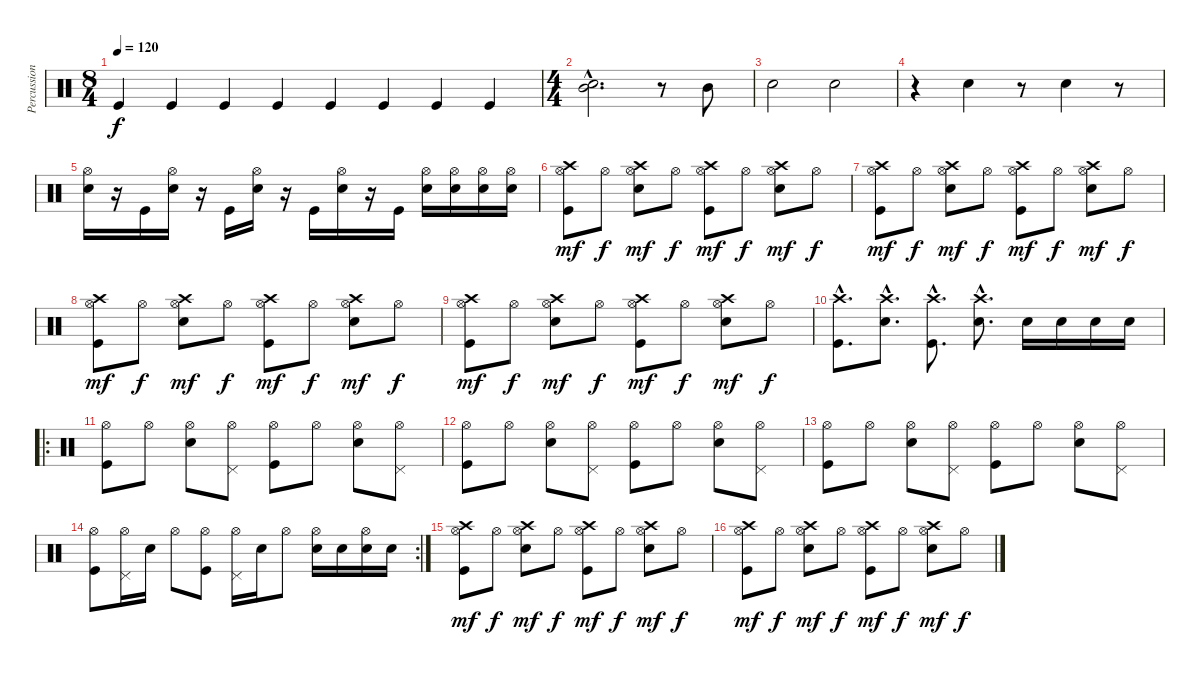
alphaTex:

\track ("Percussion" "Percussion") {instrument percussion}
\staff {score}
\articulation defaults
\ts (8 4)
\tempo 120
\clef neutral
\ks c "Kick (hit)".4{dy f} "Kick (hit)".4 "Kick (hit)".4 "Kick (hit)".4 "Kick (hit)".4 "Kick (hit)".4 "Kick (hit)".4 "Kick (hit)".4
|
\ts (4 4)
("Snare (hit) 2"{hac} "Mid Tom (hit)"{hac}).2{d} r.8 "Mid Tom (hit)".8 |
"Snare (hit) 2".2 "Snare (hit) 2".2 |
r.4 "Snare (hit) 2".4 r.8 "Snare (hit) 2".4 r.8 |
("Snare (hit) 2" "Hi-Hat (open)").16 r.16 "Kick (hit)".16 ("Snare (hit) 2" "Hi-Hat (open)").16 r.16 "Kick (hit)".16 ("Snare (hit) 2" "Hi-Hat (open)").16 r.16 "Kick (hit)".16 ("Snare (hit) 2" "Hi-Hat (open)").16 r.16 "Kick (hit)".16 ("Snare (hit) 2" "Hi-Hat (open)").16 ("Snare (hit) 2" "Hi-Hat (open)").16 ("Snare (hit) 2" "Hi-Hat (open)").16 ("Snare (hit) 2" "Hi-Hat (open)").16 |
("Hi-Hat (open)" "Kick (hit)" "Crash high (hit)").8{dy mf} "Hi-Hat (open)".8{dy f} ("Hi-Hat (open)" "Snare (hit) 2" "Crash high (hit)").8{dy mf} "Hi-Hat (open)".8{dy f} ("Hi-Hat (open)" "Kick (hit)" "Crash high (hit)").8{dy mf} "Hi-Hat (open)".8{dy f} ("Hi-Hat (open)" "Snare (hit) 2" "Crash high (hit)").8{dy mf} "Hi-Hat (open)".8{dy f} |
("Hi-Hat (open)" "Kick (hit)" "Crash high (hit)").8{dy mf} "Hi-Hat (open)".8{dy f} ("Hi-Hat (open)" "Snare (hit) 2" "Crash high (hit)").8{dy mf} "Hi-Hat (open)".8{dy f} ("Hi-Hat (open)" "Kick (hit)" "Crash high (hit)").8{dy mf} "Hi-Hat (open)".8{dy f} ("Hi-Hat (open)" "Snare (hit) 2" "Crash high (hit)").8{dy mf} "Hi-Hat (open)".8{dy f} |
("Hi-Hat (open)" "Kick (hit)" "Crash high (hit)").8{dy mf} "Hi-Hat (open)".8{dy f} ("Hi-Hat (open)" "Snare (hit) 2" "Crash high (hit)").8{dy mf} "Hi-Hat (open)".8{dy f} ("Hi-Hat (open)" "Kick (hit)" "Crash high (hit)").8{dy mf} "Hi-Hat (open)".8{dy f} ("Hi-Hat (open)" "Snare (hit) 2" "Crash high (hit)").8{dy mf} "Hi-Hat (open)".8{dy f} |
("Hi-Hat (open)" "Kick (hit)" "Crash high (hit)").8{dy mf} "Hi-Hat (open)".8{dy f} ("Hi-Hat (open)" "Snare (hit) 2" "Crash high (hit)").8{dy mf} "Hi-Hat (open)".8{dy f} ("Hi-Hat (open)" "Kick (hit)" "Crash high (hit)").8{dy mf} "Hi-Hat (open)".8{dy f} ("Hi-Hat (open)" "Snare (hit) 2" "Crash high (hit)").8{dy mf} "Hi-Hat (open)".8{dy f} |
("Kick (hit)"{hac} "Crash high (hit)"{hac}).8{d} ("Snare (hit) 2"{hac} "Crash high (hit)"{hac}).8{d} ("Kick (hit)"{hac} "Crash high (hit)"{hac}).8{d} ("Snare (hit) 2"{hac} "Crash high (hit)"{hac}).8{d} "Snare (hit) 2".16 "Snare (hit) 2".16 "Snare (hit) 2".16 "Snare (hit) 2".16 |
\ro
("Hi-Hat (open)" "Kick (hit)").8 "Hi-Hat (open)".8 ("Hi-Hat (open)" "Snare (hit) 2").8 ("Hi-Hat (open)" "Pedal Hi-Hat (hit)").8 ("Hi-Hat (open)" "Kick (hit)").8 "Hi-Hat (open)".8 ("Hi-Hat (open)" "Snare (hit) 2").8 ("Hi-Hat (open)" "Pedal Hi-Hat (hit)").8 |
("Hi-Hat (open)" "Kick (hit)").8 "Hi-Hat (open)".8 ("Hi-Hat (open)" "Snare (hit) 2").8 ("Hi-Hat (open)" "Pedal Hi-Hat (hit)").8 ("Hi-Hat (open)" "Kick (hit)").8 "Hi-Hat (open)".8 ("Hi-Hat (open)" "Snare (hit) 2").8 ("Hi-Hat (open)" "Pedal Hi-Hat (hit)").8 |
("Hi-Hat (open)" "Kick (hit)").8 "Hi-Hat (open)".8 ("Hi-Hat (open)" "Snare (hit) 2").8 ("Hi-Hat (open)" "Pedal Hi-Hat (hit)").8 ("Hi-Hat (open)" "Kick (hit)").8 "Hi-Hat (open)".8 ("Hi-Hat (open)" "Snare (hit) 2").8 ("Hi-Hat (open)" "Pedal Hi-Hat (hit)").8 |
\rc 2
("Hi-Hat (open)" "Kick (hit)").8 ("Hi-Hat (open)" "Pedal Hi-Hat (hit)").16 "Snare (hit) 2".16 "Hi-Hat (open)".8 ("Hi-Hat (open)" "Kick (hit)").8 ("Hi-Hat (open)" "Pedal Hi-Hat (hit)").16 "Snare (hit) 2".16 "Hi-Hat (open)".8 ("Hi-Hat (open)" "Snare (hit) 2").16 "Snare (hit) 2".16 ("Hi-Hat (open)" "Snare (hit) 2").16 "Snare (hit) 2".16 |
("Hi-Hat (open)" "Kick (hit)" "Crash high (hit)").8{dy mf} "Hi-Hat (open)".8{dy f} ("Hi-Hat (open)" "Snare (hit) 2" "Crash high (hit)").8{dy mf} "Hi-Hat (open)".8{dy f} ("Hi-Hat (open)" "Kick (hit)" "Crash high (hit)").8{dy mf} "Hi-Hat (open)".8{dy f} ("Hi-Hat (open)" "Snare (hit) 2" "Crash high (hit)").8{dy mf} "Hi-Hat (open)".8{dy f} |
("Hi-Hat (open)" "Kick (hit)" "Crash high (hit)").8{dy mf} "Hi-Hat (open)".8{dy f} ("Hi-Hat (open)" "Snare (hit) 2" "Crash high (hit)").8{dy mf} "Hi-Hat (open)".8{dy f} ("Hi-Hat (open)" "Kick (hit)" "Crash high (hit)").8{dy mf} "Hi-Hat (open)".8{dy f} ("Hi-Hat (open)" "Snare (hit) 2" "Crash high (hit)").8{dy mf} "Hi-Hat (open)".8{dy f}
